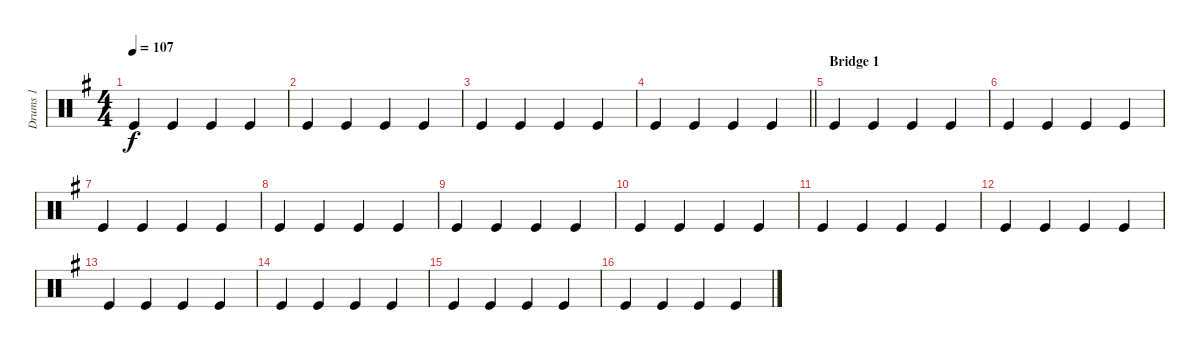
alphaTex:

\track ("Drums 1" "Drums 1") {instrument percussion}
\staff {score}
\articulation defaults
\ts (4 4)
\tempo 107
\clef neutral
\ks g "Kick (hit)".4{dy f} "Kick (hit)".4 "Kick (hit)".4 "Kick (hit)".4
|
"Kick (hit)".4 "Kick (hit)".4 "Kick (hit)".4 "Kick (hit)".4 |
"Kick (hit)".4 "Kick (hit)".4 "Kick (hit)".4 "Kick (hit)".4 |
\barLineRight lightlight "Kick (hit)".4 "Kick (hit)".4 "Kick (hit)".4 "Kick (hit)".4
|
\section ("" "Bridge 1")
"Kick (hit)".4 "Kick (hit)".4 "Kick (hit)".4 "Kick (hit)".4 |
"Kick (hit)".4 "Kick (hit)".4 "Kick (hit)".4 "Kick (hit)".4 |
"Kick (hit)".4 "Kick (hit)".4 "Kick (hit)".4 "Kick (hit)".4 |
"Kick (hit)".4 "Kick (hit)".4 "Kick (hit)".4 "Kick (hit)".4 |
"Kick (hit)".4 "Kick (hit)".4 "Kick (hit)".4 "Kick (hit)".4 |
"Kick (hit)".4 "Kick (hit)".4 "Kick (hit)".4 "Kick (hit)".4 |
"Kick (hit)".4 "Kick (hit)".4 "Kick (hit)".4 "Kick (hit)".4 |
"Kick (hit)".4 "Kick (hit)".4 "Kick (hit)".4 "Kick (hit)".4 |
"Kick (hit)".4 "Kick (hit)".4 "Kick (hit)".4 "Kick (hit)".4 |
"Kick (hit)".4 "Kick (hit)".4 "Kick (hit)".4 "Kick (hit)".4 |
"Kick (hit)".4 "Kick (hit)".4 "Kick (hit)".4 "Kick (hit)".4 |
"Kick (hit)".4 "Kick (hit)".4 "Kick (hit)".4 "Kick (hit)".4
